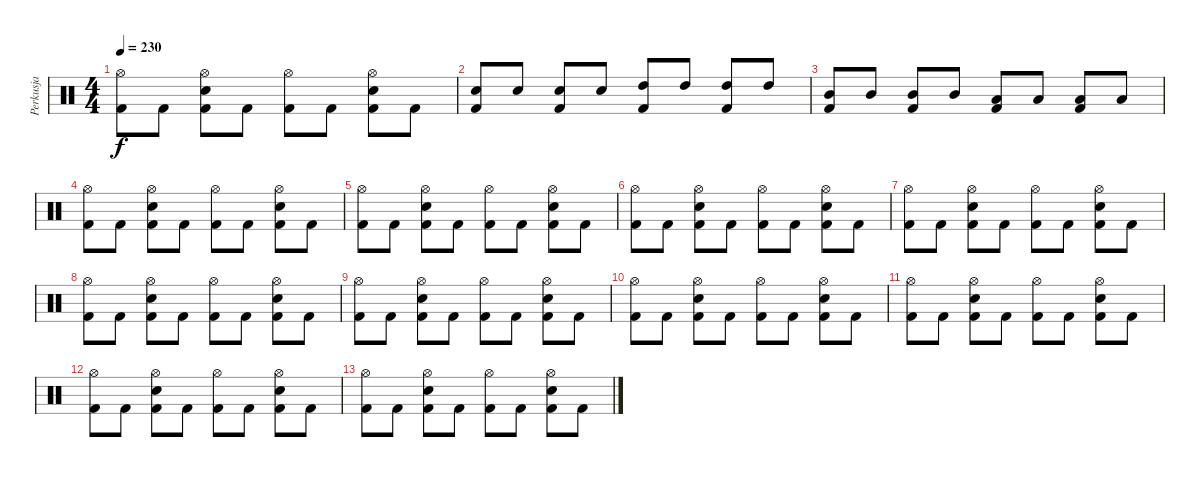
\track ("Perkusja" "Perkusja") {instrument percussion}
\staff {score}
\articulation defaults
\ts (4 4)
\tempo 230
\clef neutral
\ks c
("Hi-Hat (open)" "Kick (hit) 2").8{dy f} "Kick (hit) 2".8 ("Hi-Hat (open)" "Snare (hit) 2" "Kick (hit) 2").8 "Kick (hit) 2".8 ("Hi-Hat (open)" "Kick (hit) 2").8 "Kick (hit) 2".8 ("Hi-Hat (open)" "Snare (hit) 2" "Kick (hit) 2").8 "Kick (hit) 2".8 |
("Snare (hit) 2" "Kick (hit) 2").8 "Snare (hit) 2".8 ("Snare (hit) 2" "Kick (hit) 2").8 "Snare (hit) 2".8 ("High Tom (hit)" "Kick (hit) 2").8 "High Tom (hit)".8 ("High Tom (hit)" "Kick (hit) 2").8 "High Tom (hit)".8 |
("Mid Tom (hit)" "Kick (hit) 2").8 "Mid Tom (hit)".8 ("Mid Tom (hit)" "Kick (hit) 2").8 "Mid Tom (hit)".8 ("Low Tom (hit)" "Kick (hit) 2").8 "Low Tom (hit)".8 ("Low Tom (hit)" "Kick (hit) 2").8 "Low Tom (hit)".8 |
("Hi-Hat (open)" "Kick (hit) 2").8 "Kick (hit) 2".8 ("Hi-Hat (open)" "Snare (hit) 2" "Kick (hit) 2").8 "Kick (hit) 2".8 ("Hi-Hat (open)" "Kick (hit) 2").8 "Kick (hit) 2".8 ("Hi-Hat (open)" "Snare (hit) 2" "Kick (hit) 2").8 "Kick (hit) 2".8 |
("Hi-Hat (open)" "Kick (hit) 2").8 "Kick (hit) 2".8 ("Hi-Hat (open)" "Snare (hit) 2" "Kick (hit) 2").8 "Kick (hit) 2".8 ("Hi-Hat (open)" "Kick (hit) 2").8 "Kick (hit) 2".8 ("Hi-Hat (open)" "Snare (hit) 2" "Kick (hit) 2").8 "Kick (hit) 2".8 |
("Hi-Hat (open)" "Kick (hit) 2").8 "Kick (hit) 2".8 ("Hi-Hat (open)" "Snare (hit) 2" "Kick (hit) 2").8 "Kick (hit) 2".8 ("Hi-Hat (open)" "Kick (hit) 2").8 "Kick (hit) 2".8 ("Hi-Hat (open)" "Snare (hit) 2" "Kick (hit) 2").8 "Kick (hit) 2".8 |
("Hi-Hat (open)" "Kick (hit) 2").8 "Kick (hit) 2".8 ("Hi-Hat (open)" "Snare (hit) 2" "Kick (hit) 2").8 "Kick (hit) 2".8 ("Hi-Hat (open)" "Kick (hit) 2").8 "Kick (hit) 2".8 ("Hi-Hat (open)" "Snare (hit) 2" "Kick (hit) 2").8 "Kick (hit) 2".8 |
("Hi-Hat (open)" "Kick (hit) 2").8 "Kick (hit) 2".8 ("Hi-Hat (open)" "Snare (hit) 2" "Kick (hit) 2").8 "Kick (hit) 2".8 ("Hi-Hat (open)" "Kick (hit) 2").8 "Kick (hit) 2".8 ("Hi-Hat (open)" "Snare (hit) 2" "Kick (hit) 2").8 "Kick (hit) 2".8 |
("Hi-Hat (open)" "Kick (hit) 2").8 "Kick (hit) 2".8 ("Hi-Hat (open)" "Snare (hit) 2" "Kick (hit) 2").8 "Kick (hit) 2".8 ("Hi-Hat (open)" "Kick (hit) 2").8 "Kick (hit) 2".8 ("Hi-Hat (open)" "Snare (hit) 2" "Kick (hit) 2").8 "Kick (hit) 2".8 |
("Hi-Hat (open)" "Kick (hit) 2").8 "Kick (hit) 2".8 ("Hi-Hat (open)" "Snare (hit) 2" "Kick (hit) 2").8 "Kick (hit) 2".8 ("Hi-Hat (open)" "Kick (hit) 2").8 "Kick (hit) 2".8 ("Hi-Hat (open)" "Snare (hit) 2" "Kick (hit) 2").8 "Kick (hit) 2".8 |
("Hi-Hat (open)" "Kick (hit) 2").8 "Kick (hit) 2".8 ("Hi-Hat (open)" "Snare (hit) 2" "Kick (hit) 2").8 "Kick (hit) 2".8 ("Hi-Hat (open)" "Kick (hit) 2").8 "Kick (hit) 2".8 ("Hi-Hat (open)" "Snare (hit) 2" "Kick (hit) 2").8 "Kick (hit) 2".8 |
("Hi-Hat (open)" "Kick (hit) 2").8 "Kick (hit) 2".8 ("Hi-Hat (open)" "Snare (hit) 2" "Kick (hit) 2").8 "Kick (hit) 2".8 ("Hi-Hat (open)" "Kick (hit) 2").8 "Kick (hit) 2".8 ("Hi-Hat (open)" "Snare (hit) 2" "Kick (hit) 2").8 "Kick (hit) 2".8 |
("Hi-Hat (open)" "Kick (hit) 2").8 "Kick (hit) 2".8 ("Hi-Hat (open)" "Snare (hit) 2" "Kick (hit) 2").8 "Kick (hit) 2".8 ("Hi-Hat (open)" "Kick (hit) 2").8 "Kick (hit) 2".8 ("Hi-Hat (open)" "Snare (hit) 2" "Kick (hit) 2").8 "Kick (hit) 2".8
